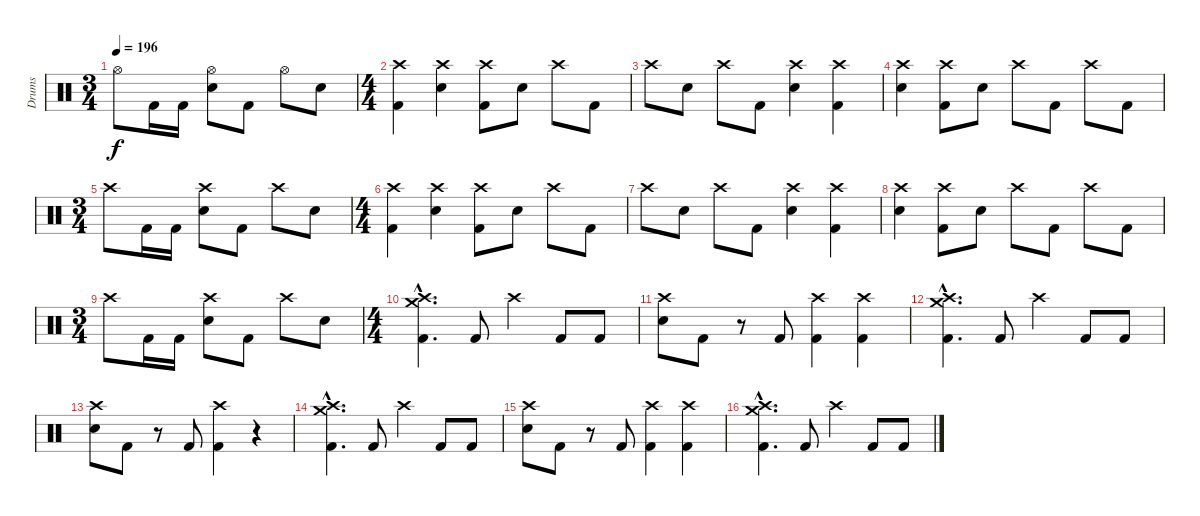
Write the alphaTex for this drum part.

\track ("Drums" "Drums") {instrument percussion}
\staff {score}
\articulation defaults
\ts (3 4)
\tempo 196
\clef neutral
\ks c "Hi-Hat (open)".8{dy f} "Kick (hit) 2".16 "Kick (hit) 2".16
("Hi-Hat (open)" "Electric Snare (hit)").8 "Kick (hit) 2".8 "Hi-Hat (open)".8 "Electric Snare (hit)".8 |
\ts (4 4)
\section ("" "")
("Crash high (hit)" "Kick (hit) 2").4 ("Crash high (hit)" "Electric Snare (hit)").4 ("Crash high (hit)" "Kick (hit) 2").8 "Electric Snare (hit)".8 "Crash high (hit)".8 "Kick (hit) 2".8 |
"Crash high (hit)".8 "Electric Snare (hit)".8 "Crash high (hit)".8 "Kick (hit) 2".8 ("Crash high (hit)" "Electric Snare (hit)").4 ("Crash high (hit)" "Kick (hit) 2").4 |
("Crash high (hit)" "Electric Snare (hit)").4 ("Crash high (hit)" "Kick (hit) 2").8 "Electric Snare (hit)".8 "Crash high (hit)".8 "Kick (hit) 2".8 "Crash high (hit)".8 "Kick (hit) 2".8 |
\ts (3 4)
"Crash high (hit)".8 "Kick (hit) 2".16 "Kick (hit) 2".16 ("Crash high (hit)" "Electric Snare (hit)").8 "Kick (hit) 2".8 "Crash high (hit)".8 "Electric Snare (hit)".8 |
\ts (4 4)
("Crash high (hit)" "Kick (hit) 2").4 ("Crash high (hit)" "Electric Snare (hit)").4 ("Crash high (hit)" "Kick (hit) 2").8 "Electric Snare (hit)".8 "Crash high (hit)".8 "Kick (hit) 2".8 |
"Crash high (hit)".8 "Electric Snare (hit)".8 "Crash high (hit)".8 "Kick (hit) 2".8 ("Crash high (hit)" "Electric Snare (hit)").4 ("Crash high (hit)" "Kick (hit) 2").4 |
("Crash high (hit)" "Electric Snare (hit)").4 ("Crash high (hit)" "Kick (hit) 2").8 "Electric Snare (hit)".8 "Crash high (hit)".8 "Kick (hit) 2".8 "Crash high (hit)".8 "Kick (hit) 2".8 |
\ts (3 4)
"Crash high (hit)".8 "Kick (hit) 2".16 "Kick (hit) 2".16 ("Crash high (hit)" "Electric Snare (hit)").8 "Kick (hit) 2".8 "Crash high (hit)".8 "Electric Snare (hit)".8 |
\ts (4 4)
\section ("" "")
("Crash high (hit)"{hac} "Crash medium (hit)"{hac} "Kick (hit) 2"{hac}).4{d} "Kick (hit) 2".8 "Crash high (hit)".4 "Kick (hit) 2".8 "Kick (hit) 2".8 |
("Crash high (hit)" "Electric Snare (hit)").8 "Kick (hit) 2".8 r.8 "Kick (hit) 2".8 ("Crash high (hit)" "Kick (hit) 2").4 ("Crash high (hit)" "Kick (hit) 2").4 |
("Crash high (hit)"{hac} "Crash medium (hit)"{hac} "Kick (hit) 2"{hac}).4{d} "Kick (hit) 2".8 "Crash high (hit)".4 "Kick (hit) 2".8 "Kick (hit) 2".8 |
("Crash high (hit)" "Electric Snare (hit)").8 "Kick (hit) 2".8 r.8 "Kick (hit) 2".8 ("Crash high (hit)" "Kick (hit) 2").4 r.4 |
("Crash high (hit)"{hac} "Crash medium (hit)"{hac} "Kick (hit) 2"{hac}).4{d} "Kick (hit) 2".8 "Crash high (hit)".4 "Kick (hit) 2".8 "Kick (hit) 2".8 |
("Crash high (hit)" "Electric Snare (hit)").8 "Kick (hit) 2".8 r.8 "Kick (hit) 2".8 ("Crash high (hit)" "Kick (hit) 2").4 ("Crash high (hit)" "Kick (hit) 2").4 |
("Crash high (hit)"{hac} "Crash medium (hit)"{hac} "Kick (hit) 2"{hac}).4{d} "Kick (hit) 2".8 "Crash high (hit)".4 "Kick (hit) 2".8 "Kick (hit) 2".8
